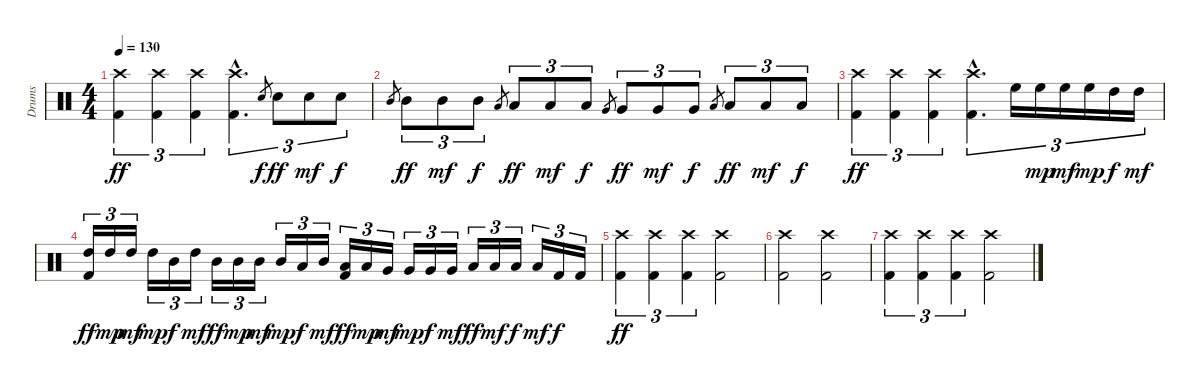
\track ("Drums" "Drums") {instrument percussion}
\staff {score}
\articulation defaults
\ts (4 4)
\tempo 130
\clef neutral
\ks c
("Crash high (hit)" "Kick (hit) 2").4{tu (3 2) dy ff} ("Crash high (hit)" "Kick (hit) 2").4{tu (3 2)} ("Crash high (hit)" "Kick (hit) 2").4{tu (3 2)} ("Crash high (hit)"{hac} "Kick (hit) 2"{hac}).4{d tu (3 2)} "Snare (hit) 2".8{gr dy f} "Snare (hit) 2".8{tu (3 2) dy ff} "Snare (hit) 2".8{tu (3 2) dy mf} "Snare (hit) 2".8{tu (3 2) dy f} |
"Mid Tom (hit)".8{gr} "Mid Tom (hit)".8{tu (3 2) dy ff} "Mid Tom (hit)".8{tu (3 2) dy mf} "Mid Tom (hit)".8{tu (3 2) dy f} "Low Tom (hit)".8{gr} "Low Tom (hit)".8{tu (3 2) dy ff} "Low Tom (hit)".8{tu (3 2) dy mf} "Low Tom (hit)".8{tu (3 2) dy f} "Very Low Tom (hit)".8{gr} "Very Low Tom (hit)".8{tu (3 2) dy ff} "Very Low Tom (hit)".8{tu (3 2) dy mf} "Very Low Tom (hit)".8{tu (3 2) dy f} "Low Floor Tom (hit)".8{gr} "Low Floor Tom (hit)".8{tu (3 2) dy ff} "Low Floor Tom (hit)".8{tu (3 2) dy mf} "Low Floor Tom (hit)".8{tu (3 2) dy f} |
("Crash high (hit)" "Kick (hit) 2").4{tu (3 2) dy ff} ("Crash high (hit)" "Kick (hit) 2").4{tu (3 2)} ("Crash high (hit)" "Kick (hit) 2").4{tu (3 2)} ("Crash high (hit)"{hac} "Kick (hit) 2"{hac}).4{d tu (3 2)} "High Floor Tom (hit)".16{tu (3 2)} "High Floor Tom (hit)".16{tu (3 2) dy mp} "High Floor Tom (hit)".16{tu (3 2) dy mf} "High Floor Tom (hit)".16{tu (3 2) dy mp} "High Tom (hit)".16{tu (3 2) dy f} "High Tom (hit)".16{tu (3 2) dy mf} |
("High Tom (hit)" "Kick (hit) 2").16{tu (3 2) dy ff} "High Tom (hit)".16{tu (3 2) dy mp} "High Tom (hit)".16{tu (3 2) dy mf} "High Tom (hit)".16{tu (3 2) dy mp} "Mid Tom (hit)".16{tu (3 2) dy f} "High Tom (hit)".16{tu (3 2) dy mf} "Mid Tom (hit)".16{tu (3 2) dy ff} "Mid Tom (hit)".16{tu (3 2) dy mp} "Mid Tom (hit)".16{tu (3 2) dy mf} "Mid Tom (hit)".16{tu (3 2) dy mp} "Low Tom (hit)".16{tu (3 2) dy f} "Mid Tom (hit)".16{tu (3 2) dy mf} ("Low Tom (hit)" "Kick (hit) 2").16{tu (3 2) dy ff} "Low Tom (hit)".16{tu (3 2) dy mp} "Very Low Tom (hit)".16{tu (3 2) dy mf} "Very Low Tom (hit)".16{tu (3 2) dy mp} "Very Low Tom (hit)".16{tu (3 2) dy f} "Very Low Tom (hit)".16{tu (3 2) dy mf} "Low Floor Tom (hit)".16{tu (3 2) dy ff} "Low Floor Tom (hit)".16{tu (3 2) dy mf} "Low Floor Tom (hit)".16{tu (3 2) dy f} "Low Floor Tom (hit)".16{tu (3 2) dy mf} "Kick (hit) 2".16{tu (3 2) dy f} "Kick (hit) 2".16{tu (3 2)} |
("Crash high (hit)" "Kick (hit) 2").4{tu (3 2) dy ff} ("Crash high (hit)" "Kick (hit) 2").4{tu (3 2)} ("Crash high (hit)" "Kick (hit) 2").4{tu (3 2)} ("Crash high (hit)" "Kick (hit) 2").2 |
("Crash high (hit)" "Kick (hit) 2").2 ("Crash high (hit)" "Kick (hit) 2").2 |
("Crash high (hit)" "Kick (hit) 2").4{tu (3 2)} ("Crash high (hit)" "Kick (hit) 2").4{tu (3 2)} ("Crash high (hit)" "Kick (hit) 2").4{tu (3 2)} ("Crash high (hit)" "Kick (hit) 2").2
